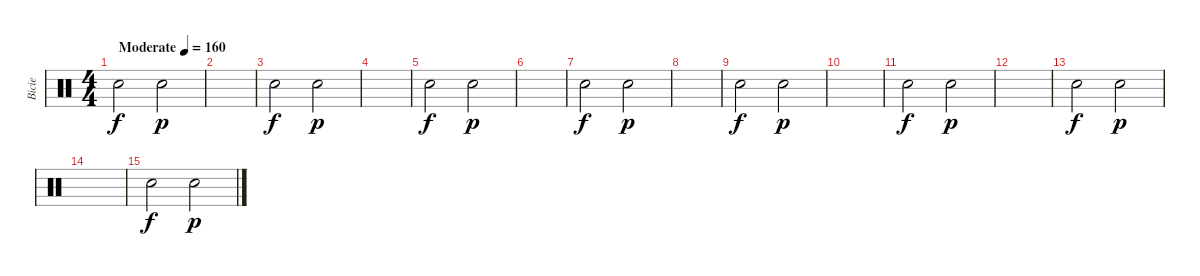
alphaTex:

\track ("Bicie" "Bicie") {instrument percussion}
\staff {score}
\articulation defaults
\ts (4 4)
\tempo (160 "Moderate")
\clef neutral
\ks c "Snare (hit) 2".2{dy f} "Snare (hit) 2".2{dy p}
|
|
"Snare (hit) 2".2{dy f} "Snare (hit) 2".2{dy p} |
|
"Snare (hit) 2".2{dy f} "Snare (hit) 2".2{dy p} |
|
"Snare (hit) 2".2{dy f} "Snare (hit) 2".2{dy p} |
|
"Snare (hit) 2".2{dy f} "Snare (hit) 2".2{dy p} |
|
"Snare (hit) 2".2{dy f} "Snare (hit) 2".2{dy p} |
|
"Snare (hit) 2".2{dy f} "Snare (hit) 2".2{dy p} |
|
"Snare (hit) 2".2{dy f} "Snare (hit) 2".2{dy p}
